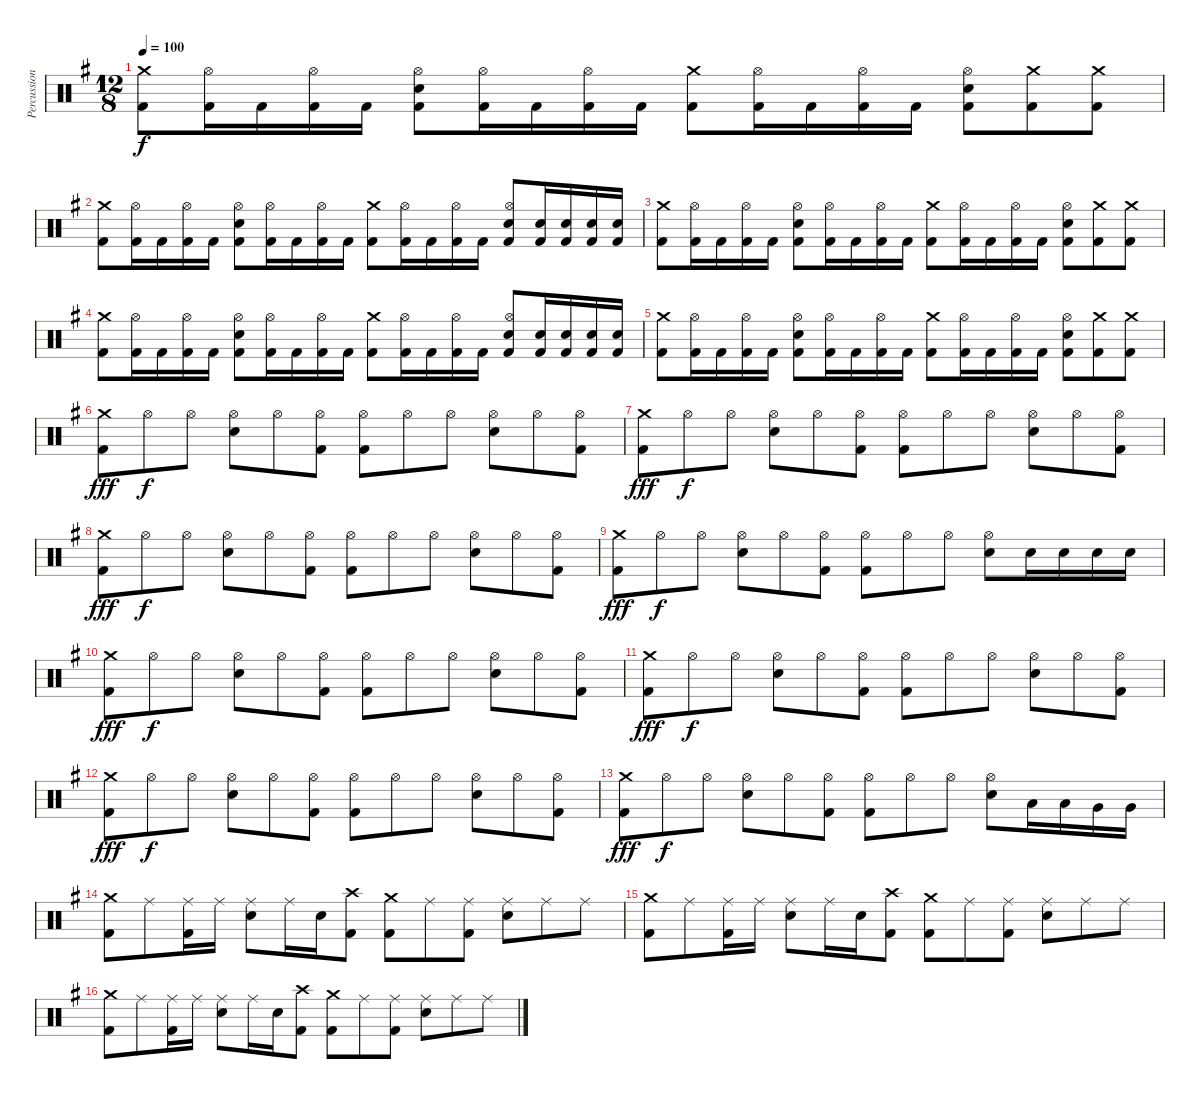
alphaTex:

\track ("Percussion" "Percussion") {instrument percussion}
\staff {score}
\articulation defaults
\ts (12 8)
\tempo 100
\clef neutral
\ks g
("Crash medium (hit)" "Kick (hit) 2").8{dy f} ("Hi-Hat (open)" "Kick (hit) 2").16 "Kick (hit) 2".16 ("Hi-Hat (open)" "Kick (hit) 2").16 "Kick (hit) 2".16 ("Hi-Hat (open)" "Snare (hit) 2" "Kick (hit) 2").8 ("Hi-Hat (open)" "Kick (hit) 2").16 "Kick (hit) 2".16 ("Hi-Hat (open)" "Kick (hit) 2").16 "Kick (hit) 2".16 ("Crash medium (hit)" "Kick (hit) 2").8 ("Hi-Hat (open)" "Kick (hit) 2").16 "Kick (hit) 2".16 ("Hi-Hat (open)" "Kick (hit) 2").16 "Kick (hit) 2".16 ("Hi-Hat (open)" "Snare (hit) 2" "Kick (hit) 2").8 ("Crash medium (hit)" "Kick (hit) 2").8 ("Crash medium (hit)" "Kick (hit) 2").8 |
("Crash medium (hit)" "Kick (hit) 2").8 ("Hi-Hat (open)" "Kick (hit) 2").16 "Kick (hit) 2".16 ("Hi-Hat (open)" "Kick (hit) 2").16 "Kick (hit) 2".16 ("Hi-Hat (open)" "Snare (hit) 2" "Kick (hit) 2").8 ("Hi-Hat (open)" "Kick (hit) 2").16 "Kick (hit) 2".16 ("Hi-Hat (open)" "Kick (hit) 2").16 "Kick (hit) 2".16 ("Crash medium (hit)" "Kick (hit) 2").8 ("Hi-Hat (open)" "Kick (hit) 2").16 "Kick (hit) 2".16 ("Hi-Hat (open)" "Kick (hit) 2").16 "Kick (hit) 2".16 ("Hi-Hat (open)" "Snare (hit) 2" "Kick (hit) 2").8 ("Snare (hit) 2" "Kick (hit) 2").16 ("Snare (hit) 2" "Kick (hit) 2").16 ("Snare (hit) 2" "Kick (hit) 2").16 ("Snare (hit) 2" "Kick (hit) 2").16 |
("Crash medium (hit)" "Kick (hit) 2").8 ("Hi-Hat (open)" "Kick (hit) 2").16 "Kick (hit) 2".16 ("Hi-Hat (open)" "Kick (hit) 2").16 "Kick (hit) 2".16 ("Hi-Hat (open)" "Snare (hit) 2" "Kick (hit) 2").8 ("Hi-Hat (open)" "Kick (hit) 2").16 "Kick (hit) 2".16 ("Hi-Hat (open)" "Kick (hit) 2").16 "Kick (hit) 2".16 ("Crash medium (hit)" "Kick (hit) 2").8 ("Hi-Hat (open)" "Kick (hit) 2").16 "Kick (hit) 2".16 ("Hi-Hat (open)" "Kick (hit) 2").16 "Kick (hit) 2".16 ("Hi-Hat (open)" "Snare (hit) 2" "Kick (hit) 2").8 ("Crash medium (hit)" "Kick (hit) 2").8 ("Crash medium (hit)" "Kick (hit) 2").8 |
("Crash medium (hit)" "Kick (hit) 2").8 ("Hi-Hat (open)" "Kick (hit) 2").16 "Kick (hit) 2".16 ("Hi-Hat (open)" "Kick (hit) 2").16 "Kick (hit) 2".16 ("Hi-Hat (open)" "Snare (hit) 2" "Kick (hit) 2").8 ("Hi-Hat (open)" "Kick (hit) 2").16 "Kick (hit) 2".16 ("Hi-Hat (open)" "Kick (hit) 2").16 "Kick (hit) 2".16 ("Crash medium (hit)" "Kick (hit) 2").8 ("Hi-Hat (open)" "Kick (hit) 2").16 "Kick (hit) 2".16 ("Hi-Hat (open)" "Kick (hit) 2").16 "Kick (hit) 2".16 ("Hi-Hat (open)" "Snare (hit) 2" "Kick (hit) 2").8 ("Snare (hit) 2" "Kick (hit) 2").16 ("Snare (hit) 2" "Kick (hit) 2").16 ("Snare (hit) 2" "Kick (hit) 2").16 ("Snare (hit) 2" "Kick (hit) 2").16 |
("Crash medium (hit)" "Kick (hit) 2").8 ("Hi-Hat (open)" "Kick (hit) 2").16 "Kick (hit) 2".16 ("Hi-Hat (open)" "Kick (hit) 2").16 "Kick (hit) 2".16 ("Hi-Hat (open)" "Snare (hit) 2" "Kick (hit) 2").8 ("Hi-Hat (open)" "Kick (hit) 2").16 "Kick (hit) 2".16 ("Hi-Hat (open)" "Kick (hit) 2").16 "Kick (hit) 2".16 ("Crash medium (hit)" "Kick (hit) 2").8 ("Hi-Hat (open)" "Kick (hit) 2").16 "Kick (hit) 2".16 ("Hi-Hat (open)" "Kick (hit) 2").16 "Kick (hit) 2".16 ("Hi-Hat (open)" "Snare (hit) 2" "Kick (hit) 2").8 ("Crash medium (hit)" "Kick (hit) 2").8 ("Crash medium (hit)" "Kick (hit) 2").8 |
("Crash medium (hit)" "Kick (hit) 2").8{dy fff} "Hi-Hat (open)".8{dy f} "Hi-Hat (open)".8 ("Hi-Hat (open)" "Snare (hit) 2").8 "Hi-Hat (open)".8 ("Hi-Hat (open)" "Kick (hit) 2").8 ("Hi-Hat (open)" "Kick (hit) 2").8 "Hi-Hat (open)".8 "Hi-Hat (open)".8 ("Hi-Hat (open)" "Snare (hit) 2").8 "Hi-Hat (open)".8 ("Hi-Hat (open)" "Kick (hit) 2").8 |
("Crash medium (hit)" "Kick (hit) 2").8{dy fff} "Hi-Hat (open)".8{dy f} "Hi-Hat (open)".8 ("Hi-Hat (open)" "Snare (hit) 2").8 "Hi-Hat (open)".8 ("Hi-Hat (open)" "Kick (hit) 2").8 ("Hi-Hat (open)" "Kick (hit) 2").8 "Hi-Hat (open)".8 "Hi-Hat (open)".8 ("Hi-Hat (open)" "Snare (hit) 2").8 "Hi-Hat (open)".8 ("Hi-Hat (open)" "Kick (hit) 2").8 |
("Crash medium (hit)" "Kick (hit) 2").8{dy fff} "Hi-Hat (open)".8{dy f} "Hi-Hat (open)".8 ("Hi-Hat (open)" "Snare (hit) 2").8 "Hi-Hat (open)".8 ("Hi-Hat (open)" "Kick (hit) 2").8 ("Hi-Hat (open)" "Kick (hit) 2").8 "Hi-Hat (open)".8 "Hi-Hat (open)".8 ("Hi-Hat (open)" "Snare (hit) 2").8 "Hi-Hat (open)".8 ("Hi-Hat (open)" "Kick (hit) 2").8 |
("Crash medium (hit)" "Kick (hit) 2").8{dy fff} "Hi-Hat (open)".8{dy f} "Hi-Hat (open)".8 ("Hi-Hat (open)" "Snare (hit) 2").8 "Hi-Hat (open)".8 ("Hi-Hat (open)" "Kick (hit) 2").8 ("Hi-Hat (open)" "Kick (hit) 2").8 "Hi-Hat (open)".8 "Hi-Hat (open)".8 ("Hi-Hat (open)" "Snare (hit) 2").8 "Snare (hit) 2".16 "Snare (hit) 2".16 "Snare (hit) 2".16 "Snare (hit) 2".16 |
("Crash medium (hit)" "Kick (hit) 2").8{dy fff} "Hi-Hat (open)".8{dy f} "Hi-Hat (open)".8 ("Hi-Hat (open)" "Snare (hit) 2").8 "Hi-Hat (open)".8 ("Hi-Hat (open)" "Kick (hit) 2").8 ("Hi-Hat (open)" "Kick (hit) 2").8 "Hi-Hat (open)".8 "Hi-Hat (open)".8 ("Hi-Hat (open)" "Snare (hit) 2").8 "Hi-Hat (open)".8 ("Hi-Hat (open)" "Kick (hit) 2").8 |
("Crash medium (hit)" "Kick (hit) 2").8{dy fff} "Hi-Hat (open)".8{dy f} "Hi-Hat (open)".8 ("Hi-Hat (open)" "Snare (hit) 2").8 "Hi-Hat (open)".8 ("Hi-Hat (open)" "Kick (hit) 2").8 ("Hi-Hat (open)" "Kick (hit) 2").8 "Hi-Hat (open)".8 "Hi-Hat (open)".8 ("Hi-Hat (open)" "Snare (hit) 2").8 "Hi-Hat (open)".8 ("Hi-Hat (open)" "Kick (hit) 2").8 |
("Crash medium (hit)" "Kick (hit) 2").8{dy fff} "Hi-Hat (open)".8{dy f} "Hi-Hat (open)".8 ("Hi-Hat (open)" "Snare (hit) 2").8 "Hi-Hat (open)".8 ("Hi-Hat (open)" "Kick (hit) 2").8 ("Hi-Hat (open)" "Kick (hit) 2").8 "Hi-Hat (open)".8 "Hi-Hat (open)".8 ("Hi-Hat (open)" "Snare (hit) 2").8 "Hi-Hat (open)".8 ("Hi-Hat (open)" "Kick (hit) 2").8 |
("Crash medium (hit)" "Kick (hit) 2").8{dy fff} "Hi-Hat (open)".8{dy f} "Hi-Hat (open)".8 ("Hi-Hat (open)" "Snare (hit) 2").8 "Hi-Hat (open)".8 ("Hi-Hat (open)" "Kick (hit) 2").8 ("Hi-Hat (open)" "Kick (hit) 2").8 "Hi-Hat (open)".8 "Hi-Hat (open)".8 ("Hi-Hat (open)" "Snare (hit) 2").8 "Low Tom (hit)".16 "Low Tom (hit)".16 "Very Low Tom (hit)".16 "Very Low Tom (hit)".16 |
("Crash medium (hit)" "Kick (hit) 2").8 "Ride (middle)".8 ("Ride (middle)" "Kick (hit) 2").16 "Ride (middle)".16 ("Ride (middle)" "Snare (hit) 2").8 "Ride (middle)".16 "Snare (hit) 2".16 ("Crash high (hit)" "Kick (hit) 2").8 ("Crash medium (hit)" "Kick (hit) 2").8 "Ride (middle)".8 ("Ride (middle)" "Kick (hit) 2").8 ("Ride (middle)" "Snare (hit) 2").8 "Ride (middle)".8 "Ride (middle)".8 |
("Crash medium (hit)" "Kick (hit) 2").8 "Ride (middle)".8 ("Ride (middle)" "Kick (hit) 2").16 "Ride (middle)".16 ("Ride (middle)" "Snare (hit) 2").8 "Ride (middle)".16 "Snare (hit) 2".16 ("Crash high (hit)" "Kick (hit) 2").8 ("Crash medium (hit)" "Kick (hit) 2").8 "Ride (middle)".8 ("Ride (middle)" "Kick (hit) 2").8 ("Ride (middle)" "Snare (hit) 2").8 "Ride (middle)".8 "Ride (middle)".8 |
("Crash medium (hit)" "Kick (hit) 2").8 "Ride (middle)".8 ("Ride (middle)" "Kick (hit) 2").16 "Ride (middle)".16 ("Ride (middle)" "Snare (hit) 2").8 "Ride (middle)".16 "Snare (hit) 2".16 ("Crash high (hit)" "Kick (hit) 2").8 ("Crash medium (hit)" "Kick (hit) 2").8 "Ride (middle)".8 ("Ride (middle)" "Kick (hit) 2").8 ("Ride (middle)" "Snare (hit) 2").8 "Ride (middle)".8 "Ride (middle)".8
